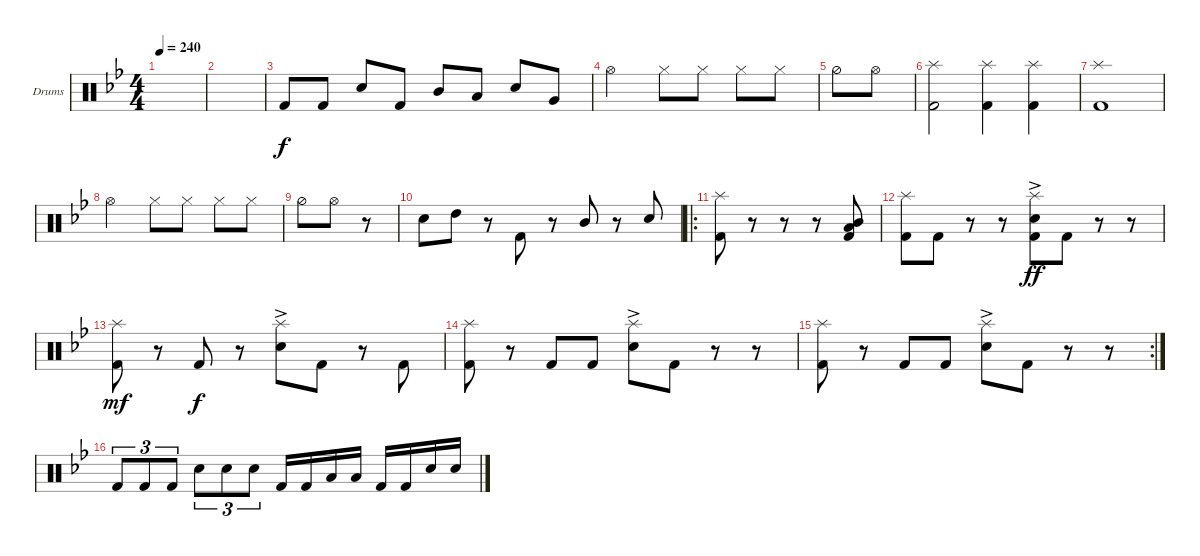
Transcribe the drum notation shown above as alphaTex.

\defaultSystemsLayout 4
\bracketExtendMode groupsimilarinstruments
\firstSystemTrackNameOrientation horizontal
\otherSystemsTrackNameOrientation horizontal
\track ("Drumkit" "Drums") {instrument percussion}
\staff {score}
\articulation defaults
\ts (4 4)
\tempo 240
\clef neutral
\scale
0.333333
\ks bb
|
\scale
0.333333 |
\scale
0.333333 "Kick (hit) 2"{acc forcenatural}.8{beam Up} "Kick (hit) 2"{acc forcenatural}.8{beam Up} "Snare (hit) 2"{acc forcenatural}.8{beam Up} "Kick (hit) 2"{acc forcenatural}.8{beam Up} "Mid Tom (hit)"{acc forcenatural}.8{beam Up} "Low Tom (hit)"{acc forcenatural}.8{beam Up} "Snare (hit) 2"{acc forcenatural}.8{beam Up} "Very Low Tom (hit)"{acc forcenatural}.8{beam Up} |
\scale
0.333333 "Hi-Hat (open)"{acc forcenatural}.2{beam Down} "Hi-Hat (closed)"{acc forcenatural}.8{beam Down} "Hi-Hat (closed)"{acc forcenatural}.8{beam Down} "Hi-Hat (closed)"{acc forcenatural}.8{beam Down} "Hi-Hat (closed)"{acc forcenatural}.8{beam Down} |
\scale
0.333333 "Hi-Hat (half)"{acc forcenatural}.8{beam Down} "Hi-Hat (open)"{acc forcenatural}.8{beam Down} |
\scale
0.333333 ("Splash (hit)"{acc forcenatural} "Kick (hit) 2"{acc forcenatural}).2{beam Down} ("Splash (hit)"{acc forcenatural} "Kick (hit) 2"{acc forcenatural}).4{beam Down} ("Splash (hit)"{acc forcenatural} "Kick (hit) 2"{acc forcenatural}).4{beam Down} |
\scale
0.333333 ("Splash (hit)"{acc forcenatural} "Kick (hit) 2"{acc forcenatural}).1{beam Down} |
\scale
0.333333 "Hi-Hat (open)"{acc forcenatural}.2{beam Down} "Hi-Hat (closed)"{acc forcenatural}.8{beam Down} "Hi-Hat (closed)"{acc forcenatural}.8{beam Down} "Hi-Hat (closed)"{acc forcenatural}.8{beam Down} "Hi-Hat (closed)"{acc forcenatural}.8{beam Down} |
\scale
0.333333 "Hi-Hat (half)"{acc forcenatural}.8{beam Down} "Hi-Hat (open)"{acc forcenatural}.8{beam Down} r.8{beam Down} |
\scale
0.333333 "Snare (hit) 2"{acc forcenatural}.8{beam Down} "High Tom (hit)"{acc forcenatural}.8{beam Down} r.8{beam Down} "Kick (hit) 2"{acc forcenatural}.8{beam Up} r.8{beam Up} "Mid Tom (hit)"{acc forcenatural}.8{beam Up} r.8{beam Up} "Snare (hit) 2"{acc forcenatural}.8{beam Down} |
\ro
\scale
0.377778 ("Kick (hit) 2"{acc forcenatural} "Splash (hit)"{acc forcenatural}).8{beam Down} r.8{beam Down} r.8{beam Down} r.8{beam Down} ("Kick (hit) 2"{acc forcenatural} "Low Tom (hit)"{acc forcenatural} "Mid Tom (hit)"{acc forcenatural}).8{beam Up} |
\scale
0.311111 ("Kick (hit) 2"{acc forcenatural} "Splash (hit)"{acc forcenatural}).8{beam Down} "Kick (hit) 2"{acc forcenatural}.8{beam Down} r.8{beam Down} r.8{beam Down} ("Kick (hit) 2"{acc forcenatural} "Splash (hit)"{acc forcenatural} "Snare (hit) 2"{ac acc forcenatural}).8{dy ff beam Down} "Kick (hit) 2"{acc forcenatural}.8{beam Down} r.8{beam Down} r.8{beam Down} |
\scale
0.311111 ("Kick (hit) 2"{acc forcenatural} "Splash (hit)"{acc forcenatural}).8{dy mf beam Down} r.8{beam Down} "Kick (hit) 2"{acc forcenatural}.8{dy f beam Up} r.8{beam Up} ("Splash (hit)"{acc forcenatural} "Snare (hit) 2"{ac acc forcenatural}).8{beam Down} "Kick (hit) 2"{acc forcenatural}.8{beam Down} r.8{beam Down} "Kick (hit) 2"{acc forcenatural}.8{beam Up} |
\scale
0.301075 ("Kick (hit) 2"{acc forcenatural} "Splash (hit)"{acc forcenatural}).8{beam Down} r.8{beam Down} "Kick (hit) 2"{acc forcenatural}.8{beam Up} "Kick (hit) 2"{acc forcenatural}.8{beam Up} ("Splash (hit)"{acc forcenatural} "Snare (hit) 2"{ac acc forcenatural}).8{beam Down} "Kick (hit) 2"{acc forcenatural}.8{beam Down} r.8{beam Down} r.8{beam Down} |
\rc 2
\scale
0.333333 ("Kick (hit) 2"{acc forcenatural} "Splash (hit)"{acc forcenatural}).8{beam Down} r.8{beam Down} "Kick (hit) 2"{acc forcenatural}.8{beam Up} "Kick (hit) 2"{acc forcenatural}.8{beam Up} ("Splash (hit)"{acc forcenatural} "Snare (hit) 2"{ac acc forcenatural}).8{beam Down} "Kick (hit) 2"{acc forcenatural}.8{beam Down} r.8{beam Down} r.8{beam Down} |
"Kick (hit) 2"{acc forcenatural}.8{tu (3 2) beam Up} "Kick (hit) 2"{acc forcenatural}.8{tu (3 2) beam Up} "Kick (hit) 2"{acc forcenatural}.8{tu (3 2) beam Up} "Snare (hit) 2"{acc forcenatural}.8{tu (3 2) beam Down} "Snare (hit) 2"{acc forcenatural}.8{tu (3 2) beam Down} "Snare (hit) 2"{acc forcenatural}.8{tu (3 2) beam Down} "Kick (hit) 2"{acc forcenatural}.16{beam Up} "Kick (hit) 2"{acc forcenatural}.16{beam Up} "Low Tom (hit)"{acc forcenatural}.16{beam Up} "Low Tom (hit)"{acc forcenatural}.16{beam Up} "Kick (hit) 2"{acc forcenatural}.16{beam Up} "Kick (hit) 2"{acc forcenatural}.16{beam Up} "Snare (hit) 2"{acc forcenatural}.16{beam Up} "Snare (hit) 2"{acc forcenatural}.16{beam Up}
